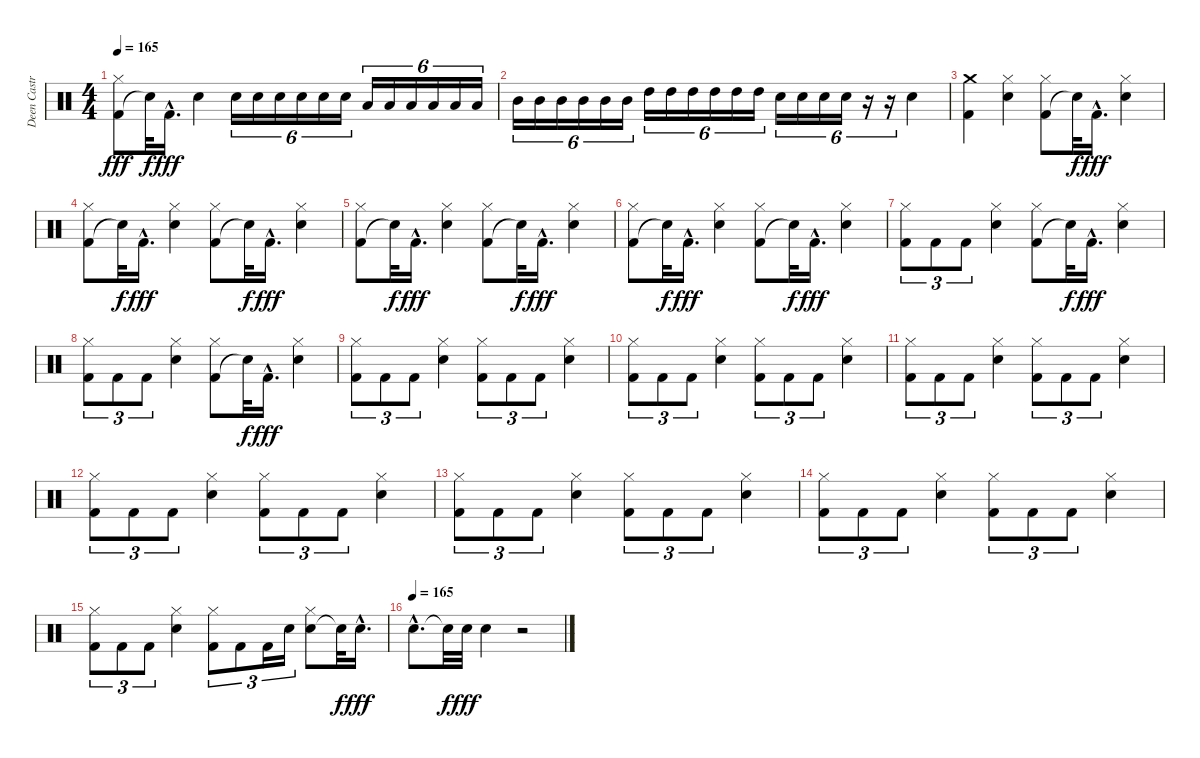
\track ("Deen Castronovo" "Deen Castr") {instrument percussion}
\staff {score}
\articulation defaults
\ts (4 4)
\tempo 165
\clef neutral
\ks c
("Kick (hit) 2" "Hi-Hat (closed)").8{dy fff} "Snare (hit)"{t}.32{dy f} "Kick (hit) 2"{hac}.16{d dy fff} "Electric Snare (hit)".4 "Electric Snare (hit)".16{tu (6 4)} "Electric Snare (hit)".16{tu (6 4)} "Electric Snare (hit)".16{tu (6 4)} "Electric Snare (hit)".16{tu (6 4)} "Electric Snare (hit)".16{tu (6 4)} "Electric Snare (hit)".16{tu (6 4)} "Low Tom (hit)".16{tu (6 4)} "Low Tom (hit)".16{tu (6 4)} "Low Tom (hit)".16{tu (6 4)} "Low Tom (hit)".16{tu (6 4)} "Low Tom (hit)".16{tu (6 4)} "Low Tom (hit)".16{tu (6 4)} |
"Mid Tom (hit)".16{tu (6 4)} "Mid Tom (hit)".16{tu (6 4)} "Mid Tom (hit)".16{tu (6 4)} "Mid Tom (hit)".16{tu (6 4)} "Mid Tom (hit)".16{tu (6 4)} "Mid Tom (hit)".16{tu (6 4)} "High Tom (hit)".16{tu (6 4)} "High Tom (hit)".16{tu (6 4)} "High Tom (hit)".16{tu (6 4)} "High Tom (hit)".16{tu (6 4)} "High Tom (hit)".16{tu (6 4)} "High Tom (hit)".16{tu (6 4)} "Electric Snare (hit)".16{tu (6 4)} "Electric Snare (hit)".16{tu (6 4)} "Electric Snare (hit)".16{tu (6 4)} "Electric Snare (hit)".16{tu (6 4)} r.16{tu (6 4)} r.16{tu (6 4)} "Electric Snare (hit)".4 |
("Kick (hit) 2" "Crash medium (hit)").4 ("Electric Snare (hit)" "Hi-Hat (closed)").4 ("Kick (hit) 2" "Hi-Hat (closed)").8 "Snare (hit)"{t}.32{dy f} "Kick (hit) 2"{hac}.16{d dy fff} ("Electric Snare (hit)" "Hi-Hat (closed)").4 |
("Kick (hit) 2" "Hi-Hat (closed)").8 "Snare (hit)"{t}.32{dy f} "Kick (hit) 2"{hac}.16{d dy fff} ("Electric Snare (hit)" "Hi-Hat (closed)").4 ("Kick (hit) 2" "Hi-Hat (closed)").8 "Snare (hit)"{t}.32{dy f} "Kick (hit) 2"{hac}.16{d dy fff} ("Electric Snare (hit)" "Hi-Hat (closed)").4 |
("Kick (hit) 2" "Hi-Hat (closed)").8 "Snare (hit)"{t}.32{dy f} "Kick (hit) 2"{hac}.16{d dy fff} ("Electric Snare (hit)" "Hi-Hat (closed)").4 ("Kick (hit) 2" "Hi-Hat (closed)").8 "Snare (hit)"{t}.32{dy f} "Kick (hit) 2"{hac}.16{d dy fff} ("Electric Snare (hit)" "Hi-Hat (closed)").4 |
("Kick (hit) 2" "Hi-Hat (closed)").8 "Snare (hit)"{t}.32{dy f} "Kick (hit) 2"{hac}.16{d dy fff} ("Electric Snare (hit)" "Hi-Hat (closed)").4 ("Kick (hit) 2" "Hi-Hat (closed)").8 "Snare (hit)"{t}.32{dy f} "Kick (hit) 2"{hac}.16{d dy fff} ("Electric Snare (hit)" "Hi-Hat (closed)").4 |
("Kick (hit) 2" "Hi-Hat (closed)").8{tu (3 2)} "Kick (hit) 2".8{tu (3 2)} "Kick (hit) 2".8{tu (3 2)} ("Electric Snare (hit)" "Hi-Hat (closed)").4 ("Kick (hit) 2" "Hi-Hat (closed)").8 "Snare (hit)"{t}.32{dy f} "Kick (hit) 2"{hac}.16{d dy fff} ("Electric Snare (hit)" "Hi-Hat (closed)").4 |
("Kick (hit) 2" "Hi-Hat (closed)").8{tu (3 2)} "Kick (hit) 2".8{tu (3 2)} "Kick (hit) 2".8{tu (3 2)} ("Electric Snare (hit)" "Hi-Hat (closed)").4 ("Kick (hit) 2" "Hi-Hat (closed)").8 "Snare (hit)"{t}.32{dy f} "Kick (hit) 2"{hac}.16{d dy fff} ("Electric Snare (hit)" "Hi-Hat (closed)").4 |
("Kick (hit) 2" "Hi-Hat (closed)").8{tu (3 2)} "Kick (hit) 2".8{tu (3 2)} "Kick (hit) 2".8{tu (3 2)} ("Electric Snare (hit)" "Hi-Hat (closed)").4 ("Kick (hit) 2" "Hi-Hat (closed)").8{tu (3 2)} "Kick (hit) 2".8{tu (3 2)} "Kick (hit) 2".8{tu (3 2)} ("Electric Snare (hit)" "Hi-Hat (closed)").4 |
("Kick (hit) 2" "Hi-Hat (closed)").8{tu (3 2)} "Kick (hit) 2".8{tu (3 2)} "Kick (hit) 2".8{tu (3 2)} ("Electric Snare (hit)" "Hi-Hat (closed)").4 ("Kick (hit) 2" "Hi-Hat (closed)").8{tu (3 2)} "Kick (hit) 2".8{tu (3 2)} "Kick (hit) 2".8{tu (3 2)} ("Electric Snare (hit)" "Hi-Hat (closed)").4 |
("Kick (hit) 2" "Hi-Hat (closed)").8{tu (3 2)} "Kick (hit) 2".8{tu (3 2)} "Kick (hit) 2".8{tu (3 2)} ("Electric Snare (hit)" "Hi-Hat (closed)").4 ("Kick (hit) 2" "Hi-Hat (closed)").8{tu (3 2)} "Kick (hit) 2".8{tu (3 2)} "Kick (hit) 2".8{tu (3 2)} ("Electric Snare (hit)" "Hi-Hat (closed)").4 |
("Kick (hit) 2" "Hi-Hat (closed)").8{tu (3 2)} "Kick (hit) 2".8{tu (3 2)} "Kick (hit) 2".8{tu (3 2)} ("Electric Snare (hit)" "Hi-Hat (closed)").4 ("Kick (hit) 2" "Hi-Hat (closed)").8{tu (3 2)} "Kick (hit) 2".8{tu (3 2)} "Kick (hit) 2".8{tu (3 2)} ("Electric Snare (hit)" "Hi-Hat (closed)").4 |
("Kick (hit) 2" "Hi-Hat (closed)").8{tu (3 2)} "Kick (hit) 2".8{tu (3 2)} "Kick (hit) 2".8{tu (3 2)} ("Electric Snare (hit)" "Hi-Hat (closed)").4 ("Kick (hit) 2" "Hi-Hat (closed)").8{tu (3 2)} "Kick (hit) 2".8{tu (3 2)} "Kick (hit) 2".8{tu (3 2)} ("Electric Snare (hit)" "Hi-Hat (closed)").4 |
("Kick (hit) 2" "Hi-Hat (closed)").8{tu (3 2)} "Kick (hit) 2".8{tu (3 2)} "Kick (hit) 2".8{tu (3 2)} ("Electric Snare (hit)" "Hi-Hat (closed)").4 ("Kick (hit) 2" "Hi-Hat (closed)").8{tu (3 2)} "Kick (hit) 2".8{tu (3 2)} "Kick (hit) 2".8{tu (3 2)} ("Electric Snare (hit)" "Hi-Hat (closed)").4 |
("Kick (hit) 2" "Hi-Hat (closed)").8{tu (3 2)} "Kick (hit) 2".8{tu (3 2)} "Kick (hit) 2".8{tu (3 2)} ("Electric Snare (hit)" "Hi-Hat (closed)").4 ("Kick (hit) 2" "Hi-Hat (closed)").8{tu (3 2)} "Kick (hit) 2".8{tu (3 2)} "Kick (hit) 2".16{tu (3 2)} "Electric Snare (hit)".16{tu (3 2)} ("Electric Snare (hit)" "Hi-Hat (closed)").8 "Snare (hit)"{t}.32{dy f} "Electric Snare (hit)"{hac}.16{d dy fff} |
\tempo (165)
"Electric Snare (hit)"{hac}.8{d} "Snare (hit)"{t}.32{dy f} "Electric Snare (hit)".32{dy fff} "Electric Snare (hit)".4 r.2
